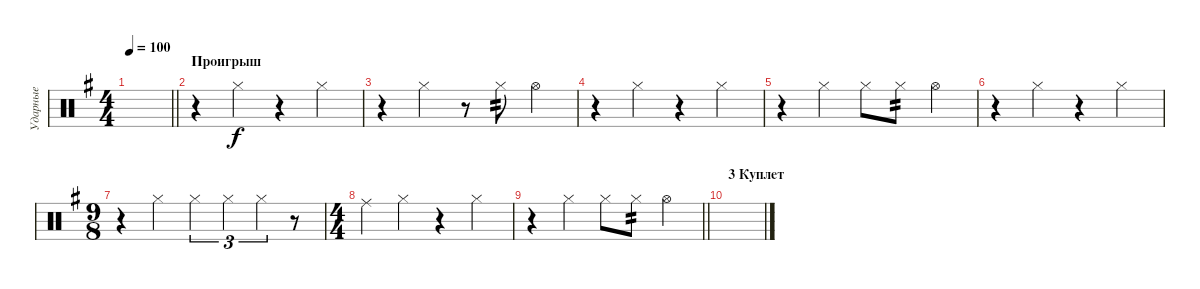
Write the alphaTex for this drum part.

\track ("Ударные" "Ударные") {instrument percussion}
\staff {score}
\articulation defaults
\ts (4 4)
\tempo 100
\clef neutral
\barLineRight lightlight
\ks eminor
|
\section ("" "Проигрыш")
r.4 "Hi-Hat (closed)".4 r.4 "Hi-Hat (closed)".4 |
r.4 "Hi-Hat (closed)".4 r.8 "Hi-Hat (closed)".8{tp 2} "Hi-Hat (open)".4 |
r.4 "Hi-Hat (closed)".4 r.4 "Hi-Hat (closed)".4 |
r.4 "Hi-Hat (closed)".4 "Hi-Hat (closed)".8 "Hi-Hat (closed)".8{tp 2} "Hi-Hat (open)".4 |
r.4 "Hi-Hat (closed)".4 r.4 "Hi-Hat (closed)".4 |
\ts (9 8)
r.4 "Hi-Hat (closed)".4 "Hi-Hat (closed)".4{tu (3 2)} "Hi-Hat (closed)".4{tu (3 2)} "Hi-Hat (closed)".4{tu (3 2)} r.8 |
\ts (4 4)
"Ride (middle)".4 "Hi-Hat (closed)".4 r.4 "Hi-Hat (closed)".4 |
\barLineRight lightlight
r.4 "Hi-Hat (closed)".4 "Hi-Hat (closed)".8 "Hi-Hat (closed)".8{tp 2} "Hi-Hat (open)".4 |
\section ("" "3 Куплет")
